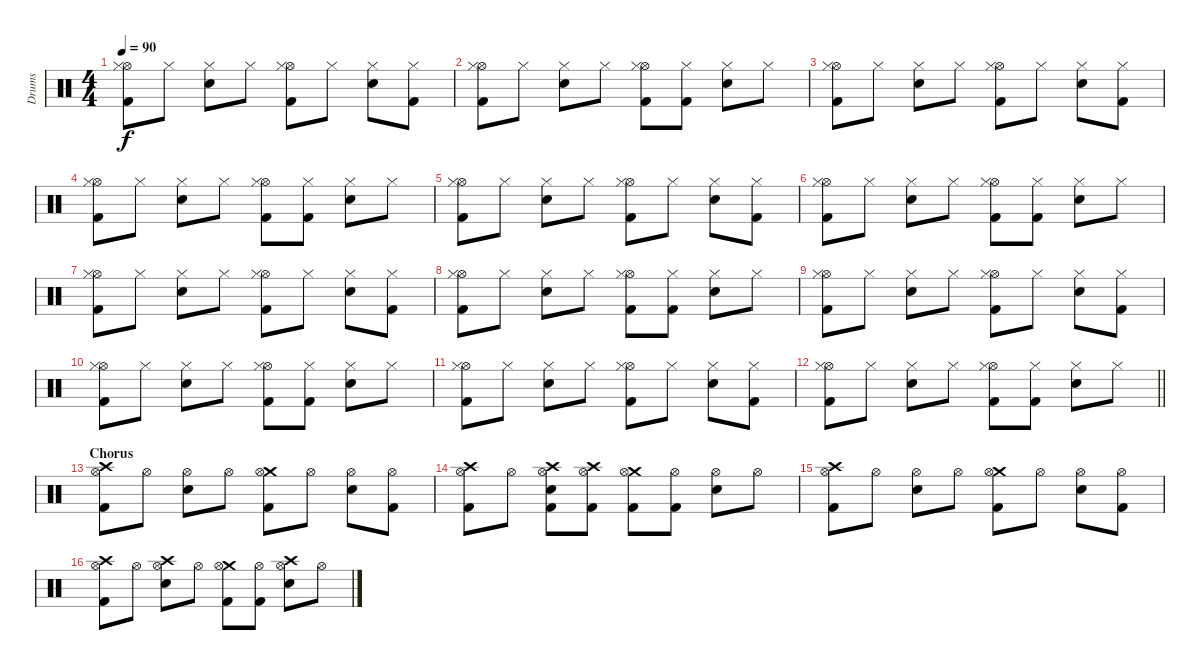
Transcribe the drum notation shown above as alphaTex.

\track ("Drums" "Drums") {instrument percussion}
\staff {score}
\articulation defaults
\ts (4 4)
\tempo 90
\clef neutral
\ks c
("Hi-Hat (open)" "Hi-Hat (closed)" "Kick (hit) 2").8{dy f} "Hi-Hat (closed)".8 ("Hi-Hat (closed)" "Electric Snare (hit)").8 "Hi-Hat (closed)".8 ("Hi-Hat (open)" "Hi-Hat (closed)" "Kick (hit) 2").8 "Hi-Hat (closed)".8 ("Hi-Hat (closed)" "Electric Snare (hit)").8 ("Hi-Hat (closed)" "Kick (hit) 2").8 |
("Hi-Hat (open)" "Hi-Hat (closed)" "Kick (hit) 2").8 "Hi-Hat (closed)".8 ("Hi-Hat (closed)" "Electric Snare (hit)").8 "Hi-Hat (closed)".8 ("Hi-Hat (open)" "Hi-Hat (closed)" "Kick (hit) 2").8 ("Hi-Hat (closed)" "Kick (hit) 2").8 ("Hi-Hat (closed)" "Electric Snare (hit)").8 "Hi-Hat (closed)".8 |
("Hi-Hat (open)" "Hi-Hat (closed)" "Kick (hit) 2").8 "Hi-Hat (closed)".8 ("Hi-Hat (closed)" "Electric Snare (hit)").8 "Hi-Hat (closed)".8 ("Hi-Hat (open)" "Hi-Hat (closed)" "Kick (hit) 2").8 "Hi-Hat (closed)".8 ("Hi-Hat (closed)" "Electric Snare (hit)").8 ("Hi-Hat (closed)" "Kick (hit) 2").8 |
("Hi-Hat (open)" "Hi-Hat (closed)" "Kick (hit) 2").8 "Hi-Hat (closed)".8 ("Hi-Hat (closed)" "Electric Snare (hit)").8 "Hi-Hat (closed)".8 ("Hi-Hat (open)" "Hi-Hat (closed)" "Kick (hit) 2").8 ("Hi-Hat (closed)" "Kick (hit) 2").8 ("Hi-Hat (closed)" "Electric Snare (hit)").8 "Hi-Hat (closed)".8 |
("Hi-Hat (open)" "Hi-Hat (closed)" "Kick (hit) 2").8 "Hi-Hat (closed)".8 ("Hi-Hat (closed)" "Electric Snare (hit)").8 "Hi-Hat (closed)".8 ("Hi-Hat (open)" "Hi-Hat (closed)" "Kick (hit) 2").8 "Hi-Hat (closed)".8 ("Hi-Hat (closed)" "Electric Snare (hit)").8 ("Hi-Hat (closed)" "Kick (hit) 2").8 |
("Hi-Hat (open)" "Hi-Hat (closed)" "Kick (hit) 2").8 "Hi-Hat (closed)".8 ("Hi-Hat (closed)" "Electric Snare (hit)").8 "Hi-Hat (closed)".8 ("Hi-Hat (open)" "Hi-Hat (closed)" "Kick (hit) 2").8 ("Hi-Hat (closed)" "Kick (hit) 2").8 ("Hi-Hat (closed)" "Electric Snare (hit)").8 "Hi-Hat (closed)".8 |
("Hi-Hat (open)" "Hi-Hat (closed)" "Kick (hit) 2").8 "Hi-Hat (closed)".8 ("Hi-Hat (closed)" "Electric Snare (hit)").8 "Hi-Hat (closed)".8 ("Hi-Hat (open)" "Hi-Hat (closed)" "Kick (hit) 2").8 "Hi-Hat (closed)".8 ("Hi-Hat (closed)" "Electric Snare (hit)").8 ("Hi-Hat (closed)" "Kick (hit) 2").8 |
("Hi-Hat (open)" "Hi-Hat (closed)" "Kick (hit) 2").8 "Hi-Hat (closed)".8 ("Hi-Hat (closed)" "Electric Snare (hit)").8 "Hi-Hat (closed)".8 ("Hi-Hat (open)" "Hi-Hat (closed)" "Kick (hit) 2").8 ("Hi-Hat (closed)" "Kick (hit) 2").8 ("Hi-Hat (closed)" "Electric Snare (hit)").8 "Hi-Hat (closed)".8 |
("Hi-Hat (open)" "Hi-Hat (closed)" "Kick (hit) 2").8 "Hi-Hat (closed)".8 ("Hi-Hat (closed)" "Electric Snare (hit)").8 "Hi-Hat (closed)".8 ("Hi-Hat (open)" "Hi-Hat (closed)" "Kick (hit) 2").8 "Hi-Hat (closed)".8 ("Hi-Hat (closed)" "Electric Snare (hit)").8 ("Hi-Hat (closed)" "Kick (hit) 2").8 |
("Hi-Hat (open)" "Hi-Hat (closed)" "Kick (hit) 2").8 "Hi-Hat (closed)".8 ("Hi-Hat (closed)" "Electric Snare (hit)").8 "Hi-Hat (closed)".8 ("Hi-Hat (open)" "Hi-Hat (closed)" "Kick (hit) 2").8 ("Hi-Hat (closed)" "Kick (hit) 2").8 ("Hi-Hat (closed)" "Electric Snare (hit)").8 "Hi-Hat (closed)".8 |
("Hi-Hat (open)" "Hi-Hat (closed)" "Kick (hit) 2").8 "Hi-Hat (closed)".8 ("Hi-Hat (closed)" "Electric Snare (hit)").8 "Hi-Hat (closed)".8 ("Hi-Hat (open)" "Hi-Hat (closed)" "Kick (hit) 2").8 "Hi-Hat (closed)".8 ("Hi-Hat (closed)" "Electric Snare (hit)").8 ("Hi-Hat (closed)" "Kick (hit) 2").8 |
\barLineRight lightlight
("Hi-Hat (open)" "Hi-Hat (closed)" "Kick (hit) 2").8 "Hi-Hat (closed)".8 ("Hi-Hat (closed)" "Electric Snare (hit)").8 "Hi-Hat (closed)".8 ("Hi-Hat (open)" "Hi-Hat (closed)" "Kick (hit) 2").8 ("Hi-Hat (closed)" "Kick (hit) 2").8 ("Hi-Hat (closed)" "Electric Snare (hit)").8 "Hi-Hat (closed)".8 |
\section ("" "Chorus")
("Crash high (hit)" "Hi-Hat (open)" "Kick (hit) 2").8 "Hi-Hat (open)".8 ("Hi-Hat (open)" "Electric Snare (hit)").8 "Hi-Hat (open)".8 ("Crash medium (hit)" "Hi-Hat (open)" "Kick (hit) 2").8 "Hi-Hat (open)".8 ("Hi-Hat (open)" "Electric Snare (hit)").8 ("Hi-Hat (open)" "Kick (hit) 2").8 |
("Crash high (hit)" "Hi-Hat (open)" "Kick (hit) 2").8 "Hi-Hat (open)".8 ("Crash high (hit)" "Hi-Hat (open)" "Electric Snare (hit)" "Kick (hit) 2").8 ("Crash high (hit)" "Hi-Hat (open)" "Kick (hit) 2").8 ("Crash medium (hit)" "Hi-Hat (open)" "Kick (hit) 2").8 ("Hi-Hat (open)" "Kick (hit) 2").8 ("Hi-Hat (open)" "Electric Snare (hit)").8 "Hi-Hat (open)".8 |
("Crash high (hit)" "Hi-Hat (open)" "Kick (hit) 2").8 "Hi-Hat (open)".8 ("Hi-Hat (open)" "Electric Snare (hit)").8 "Hi-Hat (open)".8 ("Crash medium (hit)" "Hi-Hat (open)" "Kick (hit) 2").8 "Hi-Hat (open)".8 ("Hi-Hat (open)" "Electric Snare (hit)").8 ("Hi-Hat (open)" "Kick (hit) 2").8 |
("Crash high (hit)" "Hi-Hat (open)" "Kick (hit) 2").8 "Hi-Hat (open)".8 ("Crash high (hit)" "Hi-Hat (open)" "Electric Snare (hit)").8 "Hi-Hat (open)".8 ("Crash medium (hit)" "Hi-Hat (open)" "Kick (hit) 2").8 ("Hi-Hat (open)" "Kick (hit) 2").8 ("Crash high (hit)" "Hi-Hat (open)" "Electric Snare (hit)").8 "Hi-Hat (open)".8
